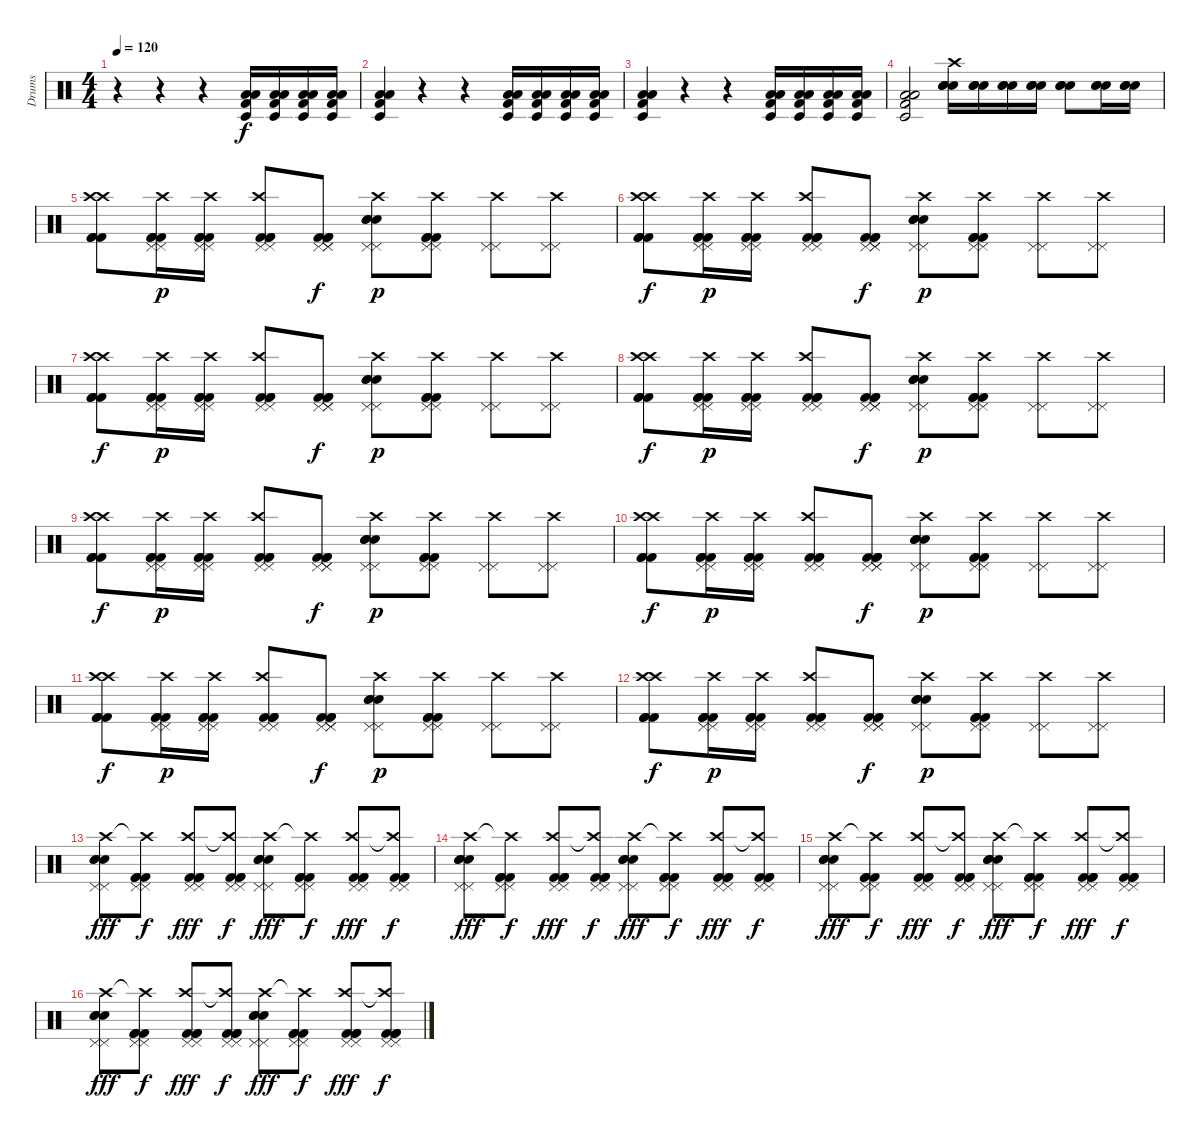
\track ("Drums" "Drums") {instrument percussion}
\staff {score}
\articulation defaults
\ts (4 4)
\tempo 120
\clef neutral
\ks c
r.4{dy f} r.4 r.4 ("Low Tom (hit)" "Low Floor Tom (hit)" "Kick (hit) 2" "Timbale low (hit)").16 ("Low Tom (hit)" "Low Floor Tom (hit)" "Kick (hit) 2" "Timbale low (hit)").16 ("Low Tom (hit)" "Low Floor Tom (hit)" "Kick (hit) 2" "Timbale low (hit)").16 ("Low Tom (hit)" "Low Floor Tom (hit)" "Kick (hit) 2" "Timbale low (hit)").16 |
("Low Tom (hit)" "Low Floor Tom (hit)" "Kick (hit) 2" "Timbale low (hit)").4 r.4 r.4 ("Low Tom (hit)" "Low Floor Tom (hit)" "Kick (hit) 2" "Timbale low (hit)").16 ("Low Tom (hit)" "Low Floor Tom (hit)" "Kick (hit) 2" "Timbale low (hit)").16 ("Low Tom (hit)" "Low Floor Tom (hit)" "Kick (hit) 2" "Timbale low (hit)").16 ("Low Tom (hit)" "Low Floor Tom (hit)" "Kick (hit) 2" "Timbale low (hit)").16 |
("Low Tom (hit)" "Low Floor Tom (hit)" "Kick (hit) 2" "Timbale low (hit)").4 r.4 r.4 ("Low Tom (hit)" "Low Floor Tom (hit)" "Kick (hit) 2" "Timbale low (hit)").16 ("Low Tom (hit)" "Low Floor Tom (hit)" "Kick (hit) 2" "Timbale low (hit)").16 ("Low Tom (hit)" "Low Floor Tom (hit)" "Kick (hit) 2" "Timbale low (hit)").16 ("Low Tom (hit)" "Low Floor Tom (hit)" "Kick (hit) 2" "Timbale low (hit)").16 |
("Low Tom (hit)" "Low Floor Tom (hit)" "Kick (hit) 2" "Timbale low (hit)").2 ("Crash high (hit)" "Snare (hit) 2" "Snare (hit) 2" "Snare (hit) 2").16 ("Snare (hit) 2" "Snare (hit) 2" "Snare (hit) 2").16 ("Snare (hit) 2" "Snare (hit) 2" "Snare (hit) 2").16 ("Snare (hit) 2" "Snare (hit) 2" "Snare (hit) 2").16 ("Snare (hit) 2" "Snare (hit) 2" "Snare (hit) 2").8 ("Snare (hit) 2" "Snare (hit) 2" "Snare (hit) 2").16 ("Snare (hit) 2" "Snare (hit) 2" "Snare (hit) 2").16 |
("Crash high (hit)" "Crash high (hit)" "Kick (hit) 2" "Kick (hit) 2" "Kick (hit) 2").8 ("Pedal Hi-Hat (hit)" "Crash high (hit)" "Pedal Hi-Hat (hit)" "Kick (hit) 2" "Kick (hit) 2" "Kick (hit) 2").16{dy p} ("Pedal Hi-Hat (hit)" "Crash high (hit)" "Pedal Hi-Hat (hit)" "Kick (hit) 2" "Kick (hit) 2" "Kick (hit) 2").16 ("Pedal Hi-Hat (hit)" "Crash high (hit)" "Pedal Hi-Hat (hit)" "Kick (hit) 2" "Kick (hit) 2" "Kick (hit) 2").8 ("Pedal Hi-Hat (hit)" "Pedal Hi-Hat (hit)" "Pedal Hi-Hat (hit)" "Kick (hit) 2" "Kick (hit) 2" "Kick (hit) 2").8{dy f} ("Pedal Hi-Hat (hit)" "Crash high (hit)" "Pedal Hi-Hat (hit)" "Snare (hit) 2" "Snare (hit) 2" "Snare (hit) 2").8{dy p} ("Pedal Hi-Hat (hit)" "Crash high (hit)" "Pedal Hi-Hat (hit)" "Kick (hit) 2" "Kick (hit) 2" "Kick (hit) 2").8 ("Pedal Hi-Hat (hit)" "Crash high (hit)" "Pedal Hi-Hat (hit)").8 ("Pedal Hi-Hat (hit)" "Crash high (hit)" "Pedal Hi-Hat (hit)").8 |
("Crash high (hit)" "Crash high (hit)" "Kick (hit) 2" "Kick (hit) 2" "Kick (hit) 2").8{dy f} ("Pedal Hi-Hat (hit)" "Crash high (hit)" "Pedal Hi-Hat (hit)" "Kick (hit) 2" "Kick (hit) 2" "Kick (hit) 2").16{dy p} ("Pedal Hi-Hat (hit)" "Crash high (hit)" "Pedal Hi-Hat (hit)" "Kick (hit) 2" "Kick (hit) 2" "Kick (hit) 2").16 ("Pedal Hi-Hat (hit)" "Crash high (hit)" "Pedal Hi-Hat (hit)" "Kick (hit) 2" "Kick (hit) 2" "Kick (hit) 2").8 ("Pedal Hi-Hat (hit)" "Pedal Hi-Hat (hit)" "Pedal Hi-Hat (hit)" "Kick (hit) 2" "Kick (hit) 2" "Kick (hit) 2").8{dy f} ("Pedal Hi-Hat (hit)" "Crash high (hit)" "Pedal Hi-Hat (hit)" "Snare (hit) 2" "Snare (hit) 2" "Snare (hit) 2").8{dy p} ("Pedal Hi-Hat (hit)" "Crash high (hit)" "Pedal Hi-Hat (hit)" "Kick (hit) 2" "Kick (hit) 2" "Kick (hit) 2").8 ("Pedal Hi-Hat (hit)" "Crash high (hit)" "Pedal Hi-Hat (hit)").8 ("Pedal Hi-Hat (hit)" "Crash high (hit)" "Pedal Hi-Hat (hit)").8 |
("Crash high (hit)" "Crash high (hit)" "Kick (hit) 2" "Kick (hit) 2" "Kick (hit) 2").8{dy f} ("Pedal Hi-Hat (hit)" "Crash high (hit)" "Pedal Hi-Hat (hit)" "Kick (hit) 2" "Kick (hit) 2" "Kick (hit) 2").16{dy p} ("Pedal Hi-Hat (hit)" "Crash high (hit)" "Pedal Hi-Hat (hit)" "Kick (hit) 2" "Kick (hit) 2" "Kick (hit) 2").16 ("Pedal Hi-Hat (hit)" "Crash high (hit)" "Pedal Hi-Hat (hit)" "Kick (hit) 2" "Kick (hit) 2" "Kick (hit) 2").8 ("Pedal Hi-Hat (hit)" "Pedal Hi-Hat (hit)" "Pedal Hi-Hat (hit)" "Kick (hit) 2" "Kick (hit) 2" "Kick (hit) 2").8{dy f} ("Pedal Hi-Hat (hit)" "Crash high (hit)" "Pedal Hi-Hat (hit)" "Snare (hit) 2" "Snare (hit) 2" "Snare (hit) 2").8{dy p} ("Pedal Hi-Hat (hit)" "Crash high (hit)" "Pedal Hi-Hat (hit)" "Kick (hit) 2" "Kick (hit) 2" "Kick (hit) 2").8 ("Pedal Hi-Hat (hit)" "Crash high (hit)" "Pedal Hi-Hat (hit)").8 ("Pedal Hi-Hat (hit)" "Crash high (hit)" "Pedal Hi-Hat (hit)").8 |
("Crash high (hit)" "Crash high (hit)" "Kick (hit) 2" "Kick (hit) 2" "Kick (hit) 2").8{dy f} ("Pedal Hi-Hat (hit)" "Crash high (hit)" "Pedal Hi-Hat (hit)" "Kick (hit) 2" "Kick (hit) 2" "Kick (hit) 2").16{dy p} ("Pedal Hi-Hat (hit)" "Crash high (hit)" "Pedal Hi-Hat (hit)" "Kick (hit) 2" "Kick (hit) 2" "Kick (hit) 2").16 ("Pedal Hi-Hat (hit)" "Crash high (hit)" "Pedal Hi-Hat (hit)" "Kick (hit) 2" "Kick (hit) 2" "Kick (hit) 2").8 ("Pedal Hi-Hat (hit)" "Pedal Hi-Hat (hit)" "Pedal Hi-Hat (hit)" "Kick (hit) 2" "Kick (hit) 2" "Kick (hit) 2").8{dy f} ("Pedal Hi-Hat (hit)" "Crash high (hit)" "Pedal Hi-Hat (hit)" "Snare (hit) 2" "Snare (hit) 2" "Snare (hit) 2").8{dy p} ("Pedal Hi-Hat (hit)" "Crash high (hit)" "Pedal Hi-Hat (hit)" "Kick (hit) 2" "Kick (hit) 2" "Kick (hit) 2").8 ("Pedal Hi-Hat (hit)" "Crash high (hit)" "Pedal Hi-Hat (hit)").8 ("Pedal Hi-Hat (hit)" "Crash high (hit)" "Pedal Hi-Hat (hit)").8 |
("Crash high (hit)" "Crash high (hit)" "Kick (hit) 2" "Kick (hit) 2" "Kick (hit) 2").8{dy f} ("Pedal Hi-Hat (hit)" "Crash high (hit)" "Pedal Hi-Hat (hit)" "Kick (hit) 2" "Kick (hit) 2" "Kick (hit) 2").16{dy p} ("Pedal Hi-Hat (hit)" "Crash high (hit)" "Pedal Hi-Hat (hit)" "Kick (hit) 2" "Kick (hit) 2" "Kick (hit) 2").16 ("Pedal Hi-Hat (hit)" "Crash high (hit)" "Pedal Hi-Hat (hit)" "Kick (hit) 2" "Kick (hit) 2" "Kick (hit) 2").8 ("Pedal Hi-Hat (hit)" "Pedal Hi-Hat (hit)" "Pedal Hi-Hat (hit)" "Kick (hit) 2" "Kick (hit) 2" "Kick (hit) 2").8{dy f} ("Pedal Hi-Hat (hit)" "Crash high (hit)" "Pedal Hi-Hat (hit)" "Snare (hit) 2" "Snare (hit) 2" "Snare (hit) 2").8{dy p} ("Pedal Hi-Hat (hit)" "Crash high (hit)" "Pedal Hi-Hat (hit)" "Kick (hit) 2" "Kick (hit) 2" "Kick (hit) 2").8 ("Pedal Hi-Hat (hit)" "Crash high (hit)" "Pedal Hi-Hat (hit)").8 ("Pedal Hi-Hat (hit)" "Crash high (hit)" "Pedal Hi-Hat (hit)").8 |
("Crash high (hit)" "Crash high (hit)" "Kick (hit) 2" "Kick (hit) 2" "Kick (hit) 2").8{dy f} ("Pedal Hi-Hat (hit)" "Crash high (hit)" "Pedal Hi-Hat (hit)" "Kick (hit) 2" "Kick (hit) 2" "Kick (hit) 2").16{dy p} ("Pedal Hi-Hat (hit)" "Crash high (hit)" "Pedal Hi-Hat (hit)" "Kick (hit) 2" "Kick (hit) 2" "Kick (hit) 2").16 ("Pedal Hi-Hat (hit)" "Crash high (hit)" "Pedal Hi-Hat (hit)" "Kick (hit) 2" "Kick (hit) 2" "Kick (hit) 2").8 ("Pedal Hi-Hat (hit)" "Pedal Hi-Hat (hit)" "Pedal Hi-Hat (hit)" "Kick (hit) 2" "Kick (hit) 2" "Kick (hit) 2").8{dy f} ("Pedal Hi-Hat (hit)" "Crash high (hit)" "Pedal Hi-Hat (hit)" "Snare (hit) 2" "Snare (hit) 2" "Snare (hit) 2").8{dy p} ("Pedal Hi-Hat (hit)" "Crash high (hit)" "Pedal Hi-Hat (hit)" "Kick (hit) 2" "Kick (hit) 2" "Kick (hit) 2").8 ("Pedal Hi-Hat (hit)" "Crash high (hit)" "Pedal Hi-Hat (hit)").8 ("Pedal Hi-Hat (hit)" "Crash high (hit)" "Pedal Hi-Hat (hit)").8 |
("Crash high (hit)" "Crash high (hit)" "Kick (hit) 2" "Kick (hit) 2" "Kick (hit) 2").8{dy f} ("Pedal Hi-Hat (hit)" "Crash high (hit)" "Pedal Hi-Hat (hit)" "Kick (hit) 2" "Kick (hit) 2" "Kick (hit) 2").16{dy p} ("Pedal Hi-Hat (hit)" "Crash high (hit)" "Pedal Hi-Hat (hit)" "Kick (hit) 2" "Kick (hit) 2" "Kick (hit) 2").16 ("Pedal Hi-Hat (hit)" "Crash high (hit)" "Pedal Hi-Hat (hit)" "Kick (hit) 2" "Kick (hit) 2" "Kick (hit) 2").8 ("Pedal Hi-Hat (hit)" "Pedal Hi-Hat (hit)" "Pedal Hi-Hat (hit)" "Kick (hit) 2" "Kick (hit) 2" "Kick (hit) 2").8{dy f} ("Pedal Hi-Hat (hit)" "Crash high (hit)" "Pedal Hi-Hat (hit)" "Snare (hit) 2" "Snare (hit) 2" "Snare (hit) 2").8{dy p} ("Pedal Hi-Hat (hit)" "Crash high (hit)" "Pedal Hi-Hat (hit)" "Kick (hit) 2" "Kick (hit) 2" "Kick (hit) 2").8 ("Pedal Hi-Hat (hit)" "Crash high (hit)" "Pedal Hi-Hat (hit)").8 ("Pedal Hi-Hat (hit)" "Crash high (hit)" "Pedal Hi-Hat (hit)").8 |
("Crash high (hit)" "Crash high (hit)" "Kick (hit) 2" "Kick (hit) 2" "Kick (hit) 2").8{dy f} ("Pedal Hi-Hat (hit)" "Crash high (hit)" "Pedal Hi-Hat (hit)" "Kick (hit) 2" "Kick (hit) 2" "Kick (hit) 2").16{dy p} ("Pedal Hi-Hat (hit)" "Crash high (hit)" "Pedal Hi-Hat (hit)" "Kick (hit) 2" "Kick (hit) 2" "Kick (hit) 2").16 ("Pedal Hi-Hat (hit)" "Crash high (hit)" "Pedal Hi-Hat (hit)" "Kick (hit) 2" "Kick (hit) 2" "Kick (hit) 2").8 ("Pedal Hi-Hat (hit)" "Pedal Hi-Hat (hit)" "Pedal Hi-Hat (hit)" "Kick (hit) 2" "Kick (hit) 2" "Kick (hit) 2").8{dy f} ("Pedal Hi-Hat (hit)" "Crash high (hit)" "Pedal Hi-Hat (hit)" "Snare (hit) 2" "Snare (hit) 2" "Snare (hit) 2").8{dy p} ("Pedal Hi-Hat (hit)" "Crash high (hit)" "Pedal Hi-Hat (hit)" "Kick (hit) 2" "Kick (hit) 2" "Kick (hit) 2").8 ("Pedal Hi-Hat (hit)" "Crash high (hit)" "Pedal Hi-Hat (hit)").8 ("Pedal Hi-Hat (hit)" "Crash high (hit)" "Pedal Hi-Hat (hit)").8 |
("Crash high (hit)" "Pedal Hi-Hat (hit)" "Pedal Hi-Hat (hit)" "Snare (hit) 2" "Snare (hit) 2" "Snare (hit) 2").8{dy fff} ("Crash high (hit)"{t} "Pedal Hi-Hat (hit)" "Pedal Hi-Hat (hit)" "Kick (hit) 2" "Kick (hit) 2" "Kick (hit) 2").8{dy f} ("Crash high (hit)" "Pedal Hi-Hat (hit)" "Pedal Hi-Hat (hit)" "Kick (hit) 2" "Kick (hit) 2" "Kick (hit) 2").8{dy fff} ("Crash high (hit)"{t} "Pedal Hi-Hat (hit)" "Pedal Hi-Hat (hit)" "Kick (hit) 2" "Kick (hit) 2" "Kick (hit) 2").8{dy f} ("Crash high (hit)" "Pedal Hi-Hat (hit)" "Pedal Hi-Hat (hit)" "Snare (hit) 2" "Snare (hit) 2" "Snare (hit) 2").8{dy fff} ("Crash high (hit)"{t} "Pedal Hi-Hat (hit)" "Pedal Hi-Hat (hit)" "Kick (hit) 2" "Kick (hit) 2" "Kick (hit) 2").8{dy f} ("Crash high (hit)" "Pedal Hi-Hat (hit)" "Pedal Hi-Hat (hit)" "Kick (hit) 2" "Kick (hit) 2" "Kick (hit) 2").8{dy fff} ("Crash high (hit)"{t} "Pedal Hi-Hat (hit)" "Pedal Hi-Hat (hit)" "Kick (hit) 2" "Kick (hit) 2" "Kick (hit) 2").8{dy f} |
("Crash high (hit)" "Pedal Hi-Hat (hit)" "Pedal Hi-Hat (hit)" "Snare (hit) 2" "Snare (hit) 2" "Snare (hit) 2").8{dy fff} ("Crash high (hit)"{t} "Pedal Hi-Hat (hit)" "Pedal Hi-Hat (hit)" "Kick (hit) 2" "Kick (hit) 2" "Kick (hit) 2").8{dy f} ("Crash high (hit)" "Pedal Hi-Hat (hit)" "Pedal Hi-Hat (hit)" "Kick (hit) 2" "Kick (hit) 2" "Kick (hit) 2").8{dy fff} ("Crash high (hit)"{t} "Pedal Hi-Hat (hit)" "Pedal Hi-Hat (hit)" "Kick (hit) 2" "Kick (hit) 2" "Kick (hit) 2").8{dy f} ("Crash high (hit)" "Pedal Hi-Hat (hit)" "Pedal Hi-Hat (hit)" "Snare (hit) 2" "Snare (hit) 2" "Snare (hit) 2").8{dy fff} ("Crash high (hit)"{t} "Pedal Hi-Hat (hit)" "Pedal Hi-Hat (hit)" "Kick (hit) 2" "Kick (hit) 2" "Kick (hit) 2").8{dy f} ("Crash high (hit)" "Pedal Hi-Hat (hit)" "Pedal Hi-Hat (hit)" "Kick (hit) 2" "Kick (hit) 2" "Kick (hit) 2").8{dy fff} ("Crash high (hit)"{t} "Pedal Hi-Hat (hit)" "Pedal Hi-Hat (hit)" "Kick (hit) 2" "Kick (hit) 2" "Kick (hit) 2").8{dy f} |
("Crash high (hit)" "Pedal Hi-Hat (hit)" "Pedal Hi-Hat (hit)" "Snare (hit) 2" "Snare (hit) 2" "Snare (hit) 2").8{dy fff} ("Crash high (hit)"{t} "Pedal Hi-Hat (hit)" "Pedal Hi-Hat (hit)" "Kick (hit) 2" "Kick (hit) 2" "Kick (hit) 2").8{dy f} ("Crash high (hit)" "Pedal Hi-Hat (hit)" "Pedal Hi-Hat (hit)" "Kick (hit) 2" "Kick (hit) 2" "Kick (hit) 2").8{dy fff} ("Crash high (hit)"{t} "Pedal Hi-Hat (hit)" "Pedal Hi-Hat (hit)" "Kick (hit) 2" "Kick (hit) 2" "Kick (hit) 2").8{dy f} ("Crash high (hit)" "Pedal Hi-Hat (hit)" "Pedal Hi-Hat (hit)" "Snare (hit) 2" "Snare (hit) 2" "Snare (hit) 2").8{dy fff} ("Crash high (hit)"{t} "Pedal Hi-Hat (hit)" "Pedal Hi-Hat (hit)" "Kick (hit) 2" "Kick (hit) 2" "Kick (hit) 2").8{dy f} ("Crash high (hit)" "Pedal Hi-Hat (hit)" "Pedal Hi-Hat (hit)" "Kick (hit) 2" "Kick (hit) 2" "Kick (hit) 2").8{dy fff} ("Crash high (hit)"{t} "Pedal Hi-Hat (hit)" "Pedal Hi-Hat (hit)" "Kick (hit) 2" "Kick (hit) 2" "Kick (hit) 2").8{dy f} |
("Crash high (hit)" "Pedal Hi-Hat (hit)" "Pedal Hi-Hat (hit)" "Snare (hit) 2" "Snare (hit) 2" "Snare (hit) 2").8{dy fff} ("Crash high (hit)"{t} "Pedal Hi-Hat (hit)" "Pedal Hi-Hat (hit)" "Kick (hit) 2" "Kick (hit) 2" "Kick (hit) 2").8{dy f} ("Crash high (hit)" "Pedal Hi-Hat (hit)" "Pedal Hi-Hat (hit)" "Kick (hit) 2" "Kick (hit) 2" "Kick (hit) 2").8{dy fff} ("Crash high (hit)"{t} "Pedal Hi-Hat (hit)" "Pedal Hi-Hat (hit)" "Kick (hit) 2" "Kick (hit) 2" "Kick (hit) 2").8{dy f} ("Crash high (hit)" "Pedal Hi-Hat (hit)" "Pedal Hi-Hat (hit)" "Snare (hit) 2" "Snare (hit) 2" "Snare (hit) 2").8{dy fff} ("Crash high (hit)"{t} "Pedal Hi-Hat (hit)" "Pedal Hi-Hat (hit)" "Kick (hit) 2" "Kick (hit) 2" "Kick (hit) 2").8{dy f} ("Crash high (hit)" "Pedal Hi-Hat (hit)" "Pedal Hi-Hat (hit)" "Kick (hit) 2" "Kick (hit) 2" "Kick (hit) 2").8{dy fff} ("Crash high (hit)"{t} "Pedal Hi-Hat (hit)" "Pedal Hi-Hat (hit)" "Kick (hit) 2" "Kick (hit) 2" "Kick (hit) 2").8{dy f}
